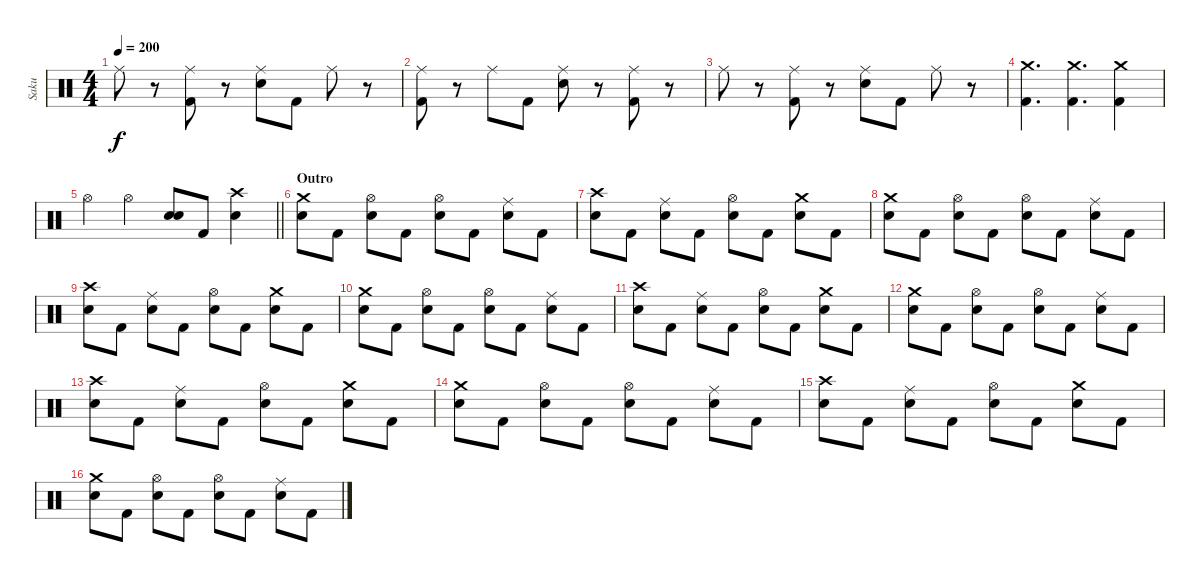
\track ("Saku" "Saku") {instrument percussion}
\staff {score}
\articulation defaults
\ts (4 4)
\tempo 200
\clef neutral
\ks c "Ride (middle)".8{dy f}
r.8 ("Ride (middle)" "Kick (hit) 2").8 r.8 ("Ride (middle)" "Electric Snare (hit)").8 "Kick (hit) 2".8 "Ride (middle)".8 r.8 |
("Ride (middle)" "Kick (hit) 2").8 r.8 "Ride (middle)".8 "Kick (hit) 2".8 ("Ride (middle)" "Electric Snare (hit)").8 r.8 ("Ride (middle)" "Kick (hit) 2").8 r.8 |
"Ride (middle)".8 r.8 ("Ride (middle)" "Kick (hit) 2").8 r.8 ("Ride (middle)" "Electric Snare (hit)").8 "Kick (hit) 2".8 "Ride (middle)".8 r.8 |
("Crash medium (hit)" "Kick (hit) 2").4{d} ("Crash medium (hit)" "Kick (hit) 2").4{d} ("Crash medium (hit)" "Kick (hit) 2").4 |
\barLineRight lightlight "Hi-Hat (open)".4 "Hi-Hat (open)".4
("Electric Snare (hit)" "Electric Snare (hit)").8{bu 120} "Kick (hit) 2".8 ("Crash high (hit)" "Electric Snare (hit)").4 |
\section ("" "Outro")
("Crash medium (hit)" "Electric Snare (hit)").8 "Kick (hit) 2".8 ("Hi-Hat (open)" "Electric Snare (hit)").8 "Kick (hit) 2".8 ("Hi-Hat (open)" "Electric Snare (hit)").8 "Kick (hit) 2".8 ("Ride (middle)" "Electric Snare (hit)").8 "Kick (hit) 2".8 |
("Crash high (hit)" "Electric Snare (hit)").8 "Kick (hit) 2".8 ("Ride (middle)" "Electric Snare (hit)").8 "Kick (hit) 2".8 ("Hi-Hat (open)" "Electric Snare (hit)").8 "Kick (hit) 2".8 ("Crash medium (hit)" "Electric Snare (hit)").8 "Kick (hit) 2".8 |
("Crash medium (hit)" "Electric Snare (hit)").8 "Kick (hit) 2".8 ("Hi-Hat (open)" "Electric Snare (hit)").8 "Kick (hit) 2".8 ("Hi-Hat (open)" "Electric Snare (hit)").8 "Kick (hit) 2".8 ("Ride (middle)" "Electric Snare (hit)").8 "Kick (hit) 2".8 |
("Crash high (hit)" "Electric Snare (hit)").8 "Kick (hit) 2".8 ("Ride (middle)" "Electric Snare (hit)").8 "Kick (hit) 2".8 ("Hi-Hat (open)" "Electric Snare (hit)").8 "Kick (hit) 2".8 ("Crash medium (hit)" "Electric Snare (hit)").8 "Kick (hit) 2".8 |
("Crash medium (hit)" "Electric Snare (hit)").8 "Kick (hit) 2".8 ("Hi-Hat (open)" "Electric Snare (hit)").8 "Kick (hit) 2".8 ("Hi-Hat (open)" "Electric Snare (hit)").8 "Kick (hit) 2".8 ("Ride (middle)" "Electric Snare (hit)").8 "Kick (hit) 2".8 |
("Crash high (hit)" "Electric Snare (hit)").8 "Kick (hit) 2".8 ("Ride (middle)" "Electric Snare (hit)").8 "Kick (hit) 2".8 ("Hi-Hat (open)" "Electric Snare (hit)").8 "Kick (hit) 2".8 ("Crash medium (hit)" "Electric Snare (hit)").8 "Kick (hit) 2".8 |
("Crash medium (hit)" "Electric Snare (hit)").8 "Kick (hit) 2".8 ("Hi-Hat (open)" "Electric Snare (hit)").8 "Kick (hit) 2".8 ("Hi-Hat (open)" "Electric Snare (hit)").8 "Kick (hit) 2".8 ("Ride (middle)" "Electric Snare (hit)").8 "Kick (hit) 2".8 |
("Crash high (hit)" "Electric Snare (hit)").8 "Kick (hit) 2".8 ("Ride (middle)" "Electric Snare (hit)").8 "Kick (hit) 2".8 ("Hi-Hat (open)" "Electric Snare (hit)").8 "Kick (hit) 2".8 ("Crash medium (hit)" "Electric Snare (hit)").8 "Kick (hit) 2".8 |
("Crash medium (hit)" "Electric Snare (hit)").8 "Kick (hit) 2".8 ("Hi-Hat (open)" "Electric Snare (hit)").8 "Kick (hit) 2".8 ("Hi-Hat (open)" "Electric Snare (hit)").8 "Kick (hit) 2".8 ("Ride (middle)" "Electric Snare (hit)").8 "Kick (hit) 2".8 |
("Crash high (hit)" "Electric Snare (hit)").8 "Kick (hit) 2".8 ("Ride (middle)" "Electric Snare (hit)").8 "Kick (hit) 2".8 ("Hi-Hat (open)" "Electric Snare (hit)").8 "Kick (hit) 2".8 ("Crash medium (hit)" "Electric Snare (hit)").8 "Kick (hit) 2".8 |
("Crash medium (hit)" "Electric Snare (hit)").8 "Kick (hit) 2".8 ("Hi-Hat (open)" "Electric Snare (hit)").8 "Kick (hit) 2".8 ("Hi-Hat (open)" "Electric Snare (hit)").8 "Kick (hit) 2".8 ("Ride (middle)" "Electric Snare (hit)").8 "Kick (hit) 2".8
